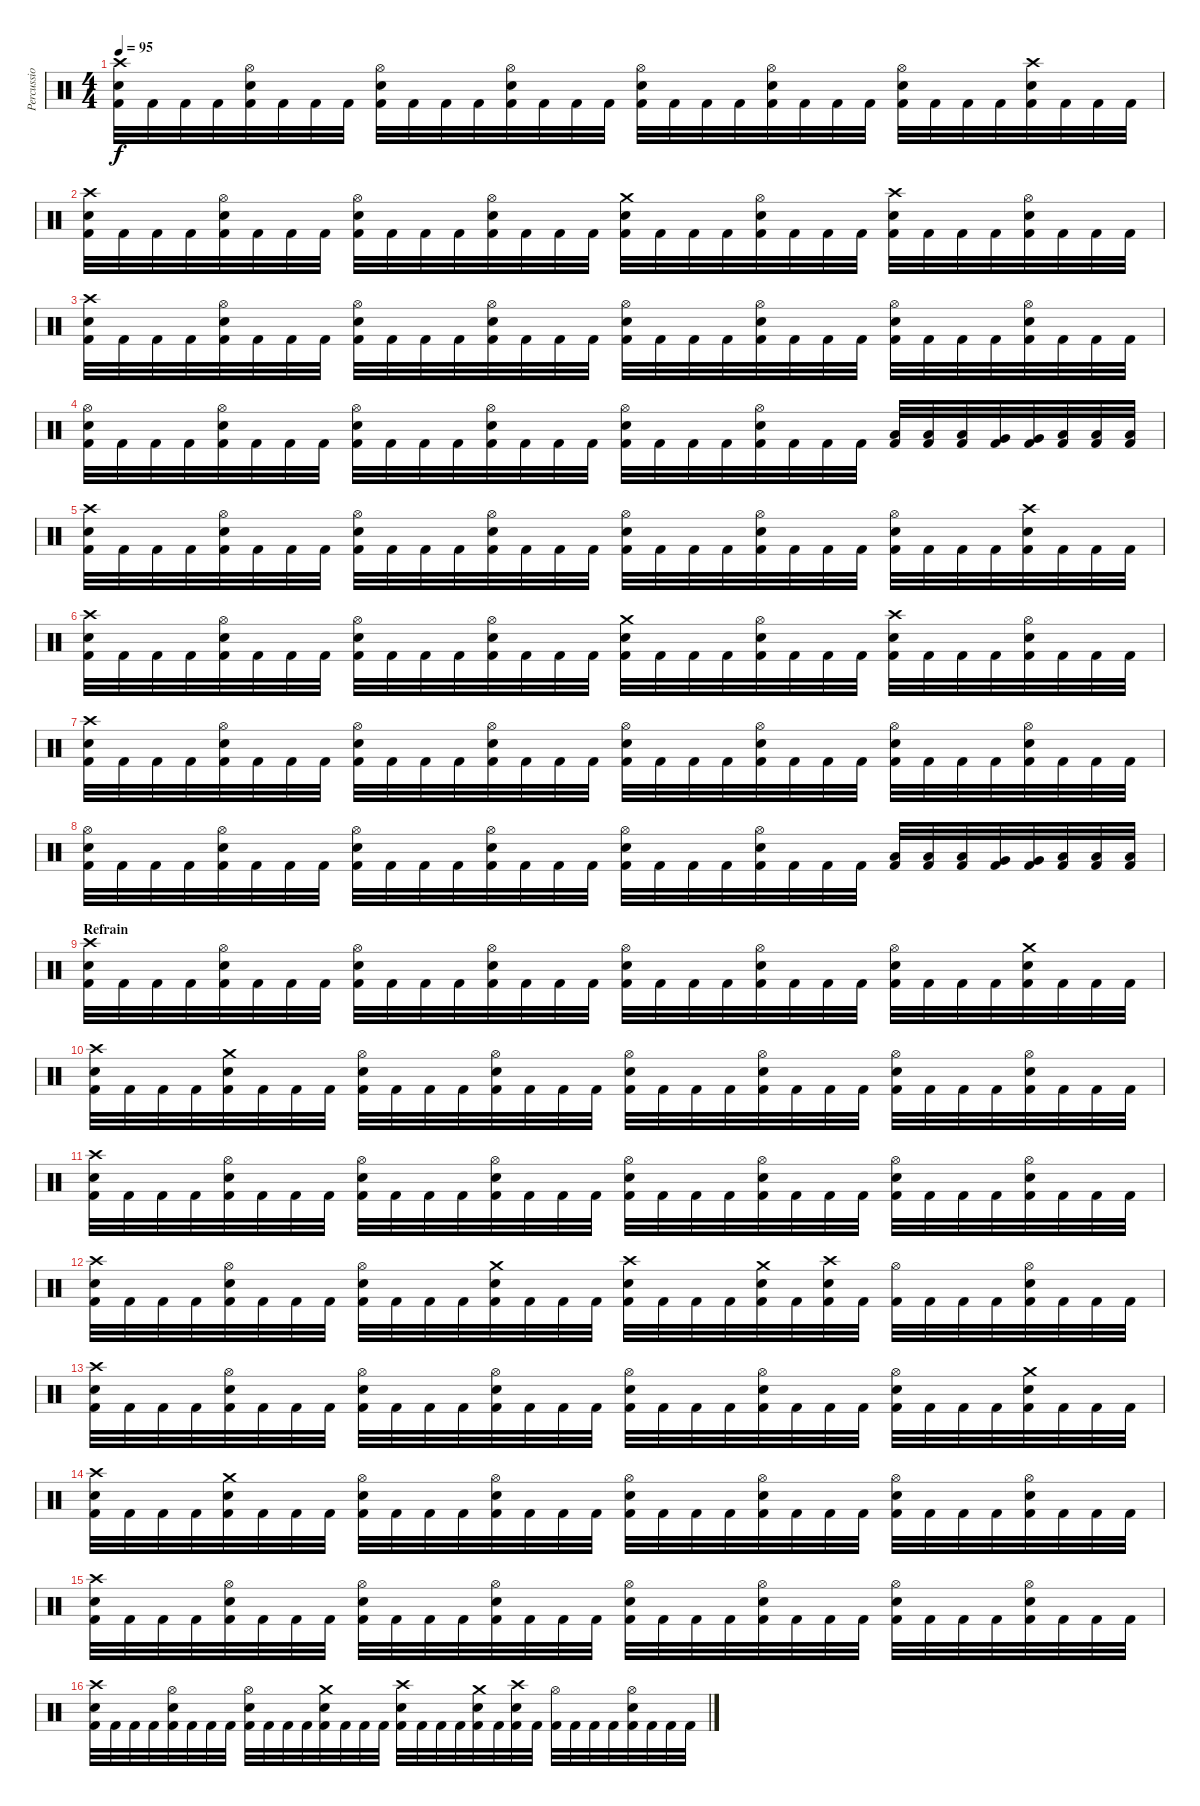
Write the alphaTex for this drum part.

\track (" Percussions" " Percussio") {instrument percussion}
\staff {score}
\articulation defaults
\ts (4 4)
\tempo 95
\clef neutral
\ks c
("Crash high (hit)" "Electric Snare (hit)" "Kick (hit) 2").32{dy f} "Kick (hit) 2".32 "Kick (hit) 2".32 "Kick (hit) 2".32 ("Hi-Hat (open)" "Electric Snare (hit)" "Kick (hit) 2").32 "Kick (hit) 2".32 "Kick (hit) 2".32 "Kick (hit) 2".32 ("Hi-Hat (open)" "Electric Snare (hit)" "Kick (hit) 2").32 "Kick (hit) 2".32 "Kick (hit) 2".32 "Kick (hit) 2".32 ("Hi-Hat (open)" "Electric Snare (hit)" "Kick (hit) 2").32 "Kick (hit) 2".32 "Kick (hit) 2".32 "Kick (hit) 2".32 ("Hi-Hat (open)" "Electric Snare (hit)" "Kick (hit) 2").32 "Kick (hit) 2".32 "Kick (hit) 2".32 "Kick (hit) 2".32 ("Hi-Hat (open)" "Electric Snare (hit)" "Kick (hit) 2").32 "Kick (hit) 2".32 "Kick (hit) 2".32 "Kick (hit) 2".32 ("Hi-Hat (open)" "Electric Snare (hit)" "Kick (hit) 2").32 "Kick (hit) 2".32 "Kick (hit) 2".32 "Kick (hit) 2".32 ("Crash high (hit)" "Electric Snare (hit)" "Kick (hit) 2").32 "Kick (hit) 2".32 "Kick (hit) 2".32 "Kick (hit) 2".32 |
("Crash high (hit)" "Electric Snare (hit)" "Kick (hit) 2").32 "Kick (hit) 2".32 "Kick (hit) 2".32 "Kick (hit) 2".32 ("Hi-Hat (open)" "Electric Snare (hit)" "Kick (hit) 2").32 "Kick (hit) 2".32 "Kick (hit) 2".32 "Kick (hit) 2".32 ("Hi-Hat (open)" "Electric Snare (hit)" "Kick (hit) 2").32 "Kick (hit) 2".32 "Kick (hit) 2".32 "Kick (hit) 2".32 ("Hi-Hat (open)" "Electric Snare (hit)" "Kick (hit) 2").32 "Kick (hit) 2".32 "Kick (hit) 2".32 "Kick (hit) 2".32 ("Crash medium (hit)" "Electric Snare (hit)" "Kick (hit) 2").32 "Kick (hit) 2".32 "Kick (hit) 2".32 "Kick (hit) 2".32 ("Hi-Hat (open)" "Electric Snare (hit)" "Kick (hit) 2").32 "Kick (hit) 2".32 "Kick (hit) 2".32 "Kick (hit) 2".32 ("Crash high (hit)" "Electric Snare (hit)" "Kick (hit) 2").32 "Kick (hit) 2".32 "Kick (hit) 2".32 "Kick (hit) 2".32 ("Hi-Hat (open)" "Electric Snare (hit)" "Kick (hit) 2").32 "Kick (hit) 2".32 "Kick (hit) 2".32 "Kick (hit) 2".32 |
("Crash high (hit)" "Electric Snare (hit)" "Kick (hit) 2").32 "Kick (hit) 2".32 "Kick (hit) 2".32 "Kick (hit) 2".32 ("Hi-Hat (open)" "Electric Snare (hit)" "Kick (hit) 2").32 "Kick (hit) 2".32 "Kick (hit) 2".32 "Kick (hit) 2".32 ("Hi-Hat (open)" "Electric Snare (hit)" "Kick (hit) 2").32 "Kick (hit) 2".32 "Kick (hit) 2".32 "Kick (hit) 2".32 ("Hi-Hat (open)" "Electric Snare (hit)" "Kick (hit) 2").32 "Kick (hit) 2".32 "Kick (hit) 2".32 "Kick (hit) 2".32 ("Hi-Hat (open)" "Electric Snare (hit)" "Kick (hit) 2").32 "Kick (hit) 2".32 "Kick (hit) 2".32 "Kick (hit) 2".32 ("Hi-Hat (open)" "Electric Snare (hit)" "Kick (hit) 2").32 "Kick (hit) 2".32 "Kick (hit) 2".32 "Kick (hit) 2".32 ("Hi-Hat (open)" "Electric Snare (hit)" "Kick (hit) 2").32 "Kick (hit) 2".32 "Kick (hit) 2".32 "Kick (hit) 2".32 ("Hi-Hat (open)" "Electric Snare (hit)" "Kick (hit) 2").32 "Kick (hit) 2".32 "Kick (hit) 2".32 "Kick (hit) 2".32 |
("Hi-Hat (open)" "Electric Snare (hit)" "Kick (hit) 2").32 "Kick (hit) 2".32 "Kick (hit) 2".32 "Kick (hit) 2".32 ("Hi-Hat (open)" "Electric Snare (hit)" "Kick (hit) 2").32 "Kick (hit) 2".32 "Kick (hit) 2".32 "Kick (hit) 2".32 ("Hi-Hat (open)" "Electric Snare (hit)" "Kick (hit) 2").32 "Kick (hit) 2".32 "Kick (hit) 2".32 "Kick (hit) 2".32 ("Hi-Hat (open)" "Electric Snare (hit)" "Kick (hit) 2").32 "Kick (hit) 2".32 "Kick (hit) 2".32 "Kick (hit) 2".32 ("Hi-Hat (open)" "Electric Snare (hit)" "Kick (hit) 2").32 "Kick (hit) 2".32 "Kick (hit) 2".32 "Kick (hit) 2".32 ("Hi-Hat (open)" "Electric Snare (hit)" "Kick (hit) 2").32 "Kick (hit) 2".32 "Kick (hit) 2".32 "Kick (hit) 2".32 ("Low Tom (hit)" "Kick (hit) 2").32 ("Low Tom (hit)" "Kick (hit) 2").32 ("Low Tom (hit)" "Kick (hit) 2").32 ("Very Low Tom (hit)" "Kick (hit) 2").32 ("Very Low Tom (hit)" "Kick (hit) 2").32 ("Low Floor Tom (hit)" "Kick (hit) 2").32 ("Low Floor Tom (hit)" "Kick (hit) 2").32 ("Low Floor Tom (hit)" "Kick (hit) 2").32 |
("Crash high (hit)" "Electric Snare (hit)" "Kick (hit) 2").32 "Kick (hit) 2".32 "Kick (hit) 2".32 "Kick (hit) 2".32 ("Hi-Hat (open)" "Electric Snare (hit)" "Kick (hit) 2").32 "Kick (hit) 2".32 "Kick (hit) 2".32 "Kick (hit) 2".32 ("Hi-Hat (open)" "Electric Snare (hit)" "Kick (hit) 2").32 "Kick (hit) 2".32 "Kick (hit) 2".32 "Kick (hit) 2".32 ("Hi-Hat (open)" "Electric Snare (hit)" "Kick (hit) 2").32 "Kick (hit) 2".32 "Kick (hit) 2".32 "Kick (hit) 2".32 ("Hi-Hat (open)" "Electric Snare (hit)" "Kick (hit) 2").32 "Kick (hit) 2".32 "Kick (hit) 2".32 "Kick (hit) 2".32 ("Hi-Hat (open)" "Electric Snare (hit)" "Kick (hit) 2").32 "Kick (hit) 2".32 "Kick (hit) 2".32 "Kick (hit) 2".32 ("Hi-Hat (open)" "Electric Snare (hit)" "Kick (hit) 2").32 "Kick (hit) 2".32 "Kick (hit) 2".32 "Kick (hit) 2".32 ("Crash high (hit)" "Electric Snare (hit)" "Kick (hit) 2").32 "Kick (hit) 2".32 "Kick (hit) 2".32 "Kick (hit) 2".32 |
("Crash high (hit)" "Electric Snare (hit)" "Kick (hit) 2").32 "Kick (hit) 2".32 "Kick (hit) 2".32 "Kick (hit) 2".32 ("Hi-Hat (open)" "Electric Snare (hit)" "Kick (hit) 2").32 "Kick (hit) 2".32 "Kick (hit) 2".32 "Kick (hit) 2".32 ("Hi-Hat (open)" "Electric Snare (hit)" "Kick (hit) 2").32 "Kick (hit) 2".32 "Kick (hit) 2".32 "Kick (hit) 2".32 ("Hi-Hat (open)" "Electric Snare (hit)" "Kick (hit) 2").32 "Kick (hit) 2".32 "Kick (hit) 2".32 "Kick (hit) 2".32 ("Crash medium (hit)" "Electric Snare (hit)" "Kick (hit) 2").32 "Kick (hit) 2".32 "Kick (hit) 2".32 "Kick (hit) 2".32 ("Hi-Hat (open)" "Electric Snare (hit)" "Kick (hit) 2").32 "Kick (hit) 2".32 "Kick (hit) 2".32 "Kick (hit) 2".32 ("Crash high (hit)" "Electric Snare (hit)" "Kick (hit) 2").32 "Kick (hit) 2".32 "Kick (hit) 2".32 "Kick (hit) 2".32 ("Hi-Hat (open)" "Electric Snare (hit)" "Kick (hit) 2").32 "Kick (hit) 2".32 "Kick (hit) 2".32 "Kick (hit) 2".32 |
("Crash high (hit)" "Electric Snare (hit)" "Kick (hit) 2").32 "Kick (hit) 2".32 "Kick (hit) 2".32 "Kick (hit) 2".32 ("Hi-Hat (open)" "Electric Snare (hit)" "Kick (hit) 2").32 "Kick (hit) 2".32 "Kick (hit) 2".32 "Kick (hit) 2".32 ("Hi-Hat (open)" "Electric Snare (hit)" "Kick (hit) 2").32 "Kick (hit) 2".32 "Kick (hit) 2".32 "Kick (hit) 2".32 ("Hi-Hat (open)" "Electric Snare (hit)" "Kick (hit) 2").32 "Kick (hit) 2".32 "Kick (hit) 2".32 "Kick (hit) 2".32 ("Hi-Hat (open)" "Electric Snare (hit)" "Kick (hit) 2").32 "Kick (hit) 2".32 "Kick (hit) 2".32 "Kick (hit) 2".32 ("Hi-Hat (open)" "Electric Snare (hit)" "Kick (hit) 2").32 "Kick (hit) 2".32 "Kick (hit) 2".32 "Kick (hit) 2".32 ("Hi-Hat (open)" "Electric Snare (hit)" "Kick (hit) 2").32 "Kick (hit) 2".32 "Kick (hit) 2".32 "Kick (hit) 2".32 ("Hi-Hat (open)" "Electric Snare (hit)" "Kick (hit) 2").32 "Kick (hit) 2".32 "Kick (hit) 2".32 "Kick (hit) 2".32 |
("Hi-Hat (open)" "Electric Snare (hit)" "Kick (hit) 2").32 "Kick (hit) 2".32 "Kick (hit) 2".32 "Kick (hit) 2".32 ("Hi-Hat (open)" "Electric Snare (hit)" "Kick (hit) 2").32 "Kick (hit) 2".32 "Kick (hit) 2".32 "Kick (hit) 2".32 ("Hi-Hat (open)" "Electric Snare (hit)" "Kick (hit) 2").32 "Kick (hit) 2".32 "Kick (hit) 2".32 "Kick (hit) 2".32 ("Hi-Hat (open)" "Electric Snare (hit)" "Kick (hit) 2").32 "Kick (hit) 2".32 "Kick (hit) 2".32 "Kick (hit) 2".32 ("Hi-Hat (open)" "Electric Snare (hit)" "Kick (hit) 2").32 "Kick (hit) 2".32 "Kick (hit) 2".32 "Kick (hit) 2".32 ("Hi-Hat (open)" "Electric Snare (hit)" "Kick (hit) 2").32 "Kick (hit) 2".32 "Kick (hit) 2".32 "Kick (hit) 2".32 ("Low Tom (hit)" "Kick (hit) 2").32 ("Low Tom (hit)" "Kick (hit) 2").32 ("Low Tom (hit)" "Kick (hit) 2").32 ("Very Low Tom (hit)" "Kick (hit) 2").32 ("Very Low Tom (hit)" "Kick (hit) 2").32 ("Low Floor Tom (hit)" "Kick (hit) 2").32 ("Low Floor Tom (hit)" "Kick (hit) 2").32 ("Low Floor Tom (hit)" "Kick (hit) 2").32 |
\section ("" "Refrain")
("Crash high (hit)" "Electric Snare (hit)" "Kick (hit) 2").32 "Kick (hit) 2".32 "Kick (hit) 2".32 "Kick (hit) 2".32 ("Hi-Hat (open)" "Electric Snare (hit)" "Kick (hit) 2").32 "Kick (hit) 2".32 "Kick (hit) 2".32 "Kick (hit) 2".32 ("Hi-Hat (open)" "Electric Snare (hit)" "Kick (hit) 2").32 "Kick (hit) 2".32 "Kick (hit) 2".32 "Kick (hit) 2".32 ("Hi-Hat (open)" "Electric Snare (hit)" "Kick (hit) 2").32 "Kick (hit) 2".32 "Kick (hit) 2".32 "Kick (hit) 2".32 ("Hi-Hat (open)" "Electric Snare (hit)" "Kick (hit) 2").32 "Kick (hit) 2".32 "Kick (hit) 2".32 "Kick (hit) 2".32 ("Hi-Hat (open)" "Electric Snare (hit)" "Kick (hit) 2").32 "Kick (hit) 2".32 "Kick (hit) 2".32 "Kick (hit) 2".32 ("Hi-Hat (open)" "Electric Snare (hit)" "Kick (hit) 2").32 "Kick (hit) 2".32 "Kick (hit) 2".32 "Kick (hit) 2".32 ("Crash medium (hit)" "Electric Snare (hit)" "Kick (hit) 2").32 "Kick (hit) 2".32 "Kick (hit) 2".32 "Kick (hit) 2".32 |
("Crash high (hit)" "Electric Snare (hit)" "Kick (hit) 2").32 "Kick (hit) 2".32 "Kick (hit) 2".32 "Kick (hit) 2".32 ("Crash medium (hit)" "Electric Snare (hit)" "Kick (hit) 2").32 "Kick (hit) 2".32 "Kick (hit) 2".32 "Kick (hit) 2".32 ("Hi-Hat (open)" "Electric Snare (hit)" "Kick (hit) 2").32 "Kick (hit) 2".32 "Kick (hit) 2".32 "Kick (hit) 2".32 ("Hi-Hat (open)" "Electric Snare (hit)" "Kick (hit) 2").32 "Kick (hit) 2".32 "Kick (hit) 2".32 "Kick (hit) 2".32 ("Hi-Hat (open)" "Electric Snare (hit)" "Kick (hit) 2").32 "Kick (hit) 2".32 "Kick (hit) 2".32 "Kick (hit) 2".32 ("Hi-Hat (open)" "Electric Snare (hit)" "Kick (hit) 2").32 "Kick (hit) 2".32 "Kick (hit) 2".32 "Kick (hit) 2".32 ("Hi-Hat (open)" "Electric Snare (hit)" "Kick (hit) 2").32 "Kick (hit) 2".32 "Kick (hit) 2".32 "Kick (hit) 2".32 ("Hi-Hat (open)" "Electric Snare (hit)" "Kick (hit) 2").32 "Kick (hit) 2".32 "Kick (hit) 2".32 "Kick (hit) 2".32 |
("Crash high (hit)" "Electric Snare (hit)" "Kick (hit) 2").32 "Kick (hit) 2".32 "Kick (hit) 2".32 "Kick (hit) 2".32 ("Hi-Hat (open)" "Electric Snare (hit)" "Kick (hit) 2").32 "Kick (hit) 2".32 "Kick (hit) 2".32 "Kick (hit) 2".32 ("Hi-Hat (open)" "Electric Snare (hit)" "Kick (hit) 2").32 "Kick (hit) 2".32 "Kick (hit) 2".32 "Kick (hit) 2".32 ("Hi-Hat (open)" "Electric Snare (hit)" "Kick (hit) 2").32 "Kick (hit) 2".32 "Kick (hit) 2".32 "Kick (hit) 2".32 ("Hi-Hat (open)" "Electric Snare (hit)" "Kick (hit) 2").32 "Kick (hit) 2".32 "Kick (hit) 2".32 "Kick (hit) 2".32 ("Hi-Hat (open)" "Electric Snare (hit)" "Kick (hit) 2").32 "Kick (hit) 2".32 "Kick (hit) 2".32 "Kick (hit) 2".32 ("Hi-Hat (open)" "Electric Snare (hit)" "Kick (hit) 2").32 "Kick (hit) 2".32 "Kick (hit) 2".32 "Kick (hit) 2".32 ("Hi-Hat (open)" "Electric Snare (hit)" "Kick (hit) 2").32 "Kick (hit) 2".32 "Kick (hit) 2".32 "Kick (hit) 2".32 |
("Crash high (hit)" "Electric Snare (hit)" "Kick (hit) 2").32 "Kick (hit) 2".32 "Kick (hit) 2".32 "Kick (hit) 2".32 ("Hi-Hat (open)" "Electric Snare (hit)" "Kick (hit) 2").32 "Kick (hit) 2".32 "Kick (hit) 2".32 "Kick (hit) 2".32 ("Hi-Hat (open)" "Electric Snare (hit)" "Kick (hit) 2").32 "Kick (hit) 2".32 "Kick (hit) 2".32 "Kick (hit) 2".32 ("Crash medium (hit)" "Electric Snare (hit)" "Kick (hit) 2").32 "Kick (hit) 2".32 "Kick (hit) 2".32 "Kick (hit) 2".32 ("Crash high (hit)" "Electric Snare (hit)" "Kick (hit) 2").32 "Kick (hit) 2".32 "Kick (hit) 2".32 "Kick (hit) 2".32 ("Crash medium (hit)" "Electric Snare (hit)" "Kick (hit) 2").32 "Kick (hit) 2".32 ("Crash high (hit)" "Electric Snare (hit)" "Kick (hit) 2").32 "Kick (hit) 2".32 ("Hi-Hat (open)" "Kick (hit) 2").32 "Kick (hit) 2".32 "Kick (hit) 2".32 "Kick (hit) 2".32 ("Hi-Hat (open)" "Electric Snare (hit)" "Kick (hit) 2").32 "Kick (hit) 2".32 "Kick (hit) 2".32 "Kick (hit) 2".32 |
("Crash high (hit)" "Electric Snare (hit)" "Kick (hit) 2").32 "Kick (hit) 2".32 "Kick (hit) 2".32 "Kick (hit) 2".32 ("Hi-Hat (open)" "Electric Snare (hit)" "Kick (hit) 2").32 "Kick (hit) 2".32 "Kick (hit) 2".32 "Kick (hit) 2".32 ("Hi-Hat (open)" "Electric Snare (hit)" "Kick (hit) 2").32 "Kick (hit) 2".32 "Kick (hit) 2".32 "Kick (hit) 2".32 ("Hi-Hat (open)" "Electric Snare (hit)" "Kick (hit) 2").32 "Kick (hit) 2".32 "Kick (hit) 2".32 "Kick (hit) 2".32 ("Hi-Hat (open)" "Electric Snare (hit)" "Kick (hit) 2").32 "Kick (hit) 2".32 "Kick (hit) 2".32 "Kick (hit) 2".32 ("Hi-Hat (open)" "Electric Snare (hit)" "Kick (hit) 2").32 "Kick (hit) 2".32 "Kick (hit) 2".32 "Kick (hit) 2".32 ("Hi-Hat (open)" "Electric Snare (hit)" "Kick (hit) 2").32 "Kick (hit) 2".32 "Kick (hit) 2".32 "Kick (hit) 2".32 ("Crash medium (hit)" "Electric Snare (hit)" "Kick (hit) 2").32 "Kick (hit) 2".32 "Kick (hit) 2".32 "Kick (hit) 2".32 |
("Crash high (hit)" "Electric Snare (hit)" "Kick (hit) 2").32 "Kick (hit) 2".32 "Kick (hit) 2".32 "Kick (hit) 2".32 ("Crash medium (hit)" "Electric Snare (hit)" "Kick (hit) 2").32 "Kick (hit) 2".32 "Kick (hit) 2".32 "Kick (hit) 2".32 ("Hi-Hat (open)" "Electric Snare (hit)" "Kick (hit) 2").32 "Kick (hit) 2".32 "Kick (hit) 2".32 "Kick (hit) 2".32 ("Hi-Hat (open)" "Electric Snare (hit)" "Kick (hit) 2").32 "Kick (hit) 2".32 "Kick (hit) 2".32 "Kick (hit) 2".32 ("Hi-Hat (open)" "Electric Snare (hit)" "Kick (hit) 2").32 "Kick (hit) 2".32 "Kick (hit) 2".32 "Kick (hit) 2".32 ("Hi-Hat (open)" "Electric Snare (hit)" "Kick (hit) 2").32 "Kick (hit) 2".32 "Kick (hit) 2".32 "Kick (hit) 2".32 ("Hi-Hat (open)" "Electric Snare (hit)" "Kick (hit) 2").32 "Kick (hit) 2".32 "Kick (hit) 2".32 "Kick (hit) 2".32 ("Hi-Hat (open)" "Electric Snare (hit)" "Kick (hit) 2").32 "Kick (hit) 2".32 "Kick (hit) 2".32 "Kick (hit) 2".32 |
("Crash high (hit)" "Electric Snare (hit)" "Kick (hit) 2").32 "Kick (hit) 2".32 "Kick (hit) 2".32 "Kick (hit) 2".32 ("Hi-Hat (open)" "Electric Snare (hit)" "Kick (hit) 2").32 "Kick (hit) 2".32 "Kick (hit) 2".32 "Kick (hit) 2".32 ("Hi-Hat (open)" "Electric Snare (hit)" "Kick (hit) 2").32 "Kick (hit) 2".32 "Kick (hit) 2".32 "Kick (hit) 2".32 ("Hi-Hat (open)" "Electric Snare (hit)" "Kick (hit) 2").32 "Kick (hit) 2".32 "Kick (hit) 2".32 "Kick (hit) 2".32 ("Hi-Hat (open)" "Electric Snare (hit)" "Kick (hit) 2").32 "Kick (hit) 2".32 "Kick (hit) 2".32 "Kick (hit) 2".32 ("Hi-Hat (open)" "Electric Snare (hit)" "Kick (hit) 2").32 "Kick (hit) 2".32 "Kick (hit) 2".32 "Kick (hit) 2".32 ("Hi-Hat (open)" "Electric Snare (hit)" "Kick (hit) 2").32 "Kick (hit) 2".32 "Kick (hit) 2".32 "Kick (hit) 2".32 ("Hi-Hat (open)" "Electric Snare (hit)" "Kick (hit) 2").32 "Kick (hit) 2".32 "Kick (hit) 2".32 "Kick (hit) 2".32 |
("Crash high (hit)" "Electric Snare (hit)" "Kick (hit) 2").32 "Kick (hit) 2".32 "Kick (hit) 2".32 "Kick (hit) 2".32 ("Hi-Hat (open)" "Electric Snare (hit)" "Kick (hit) 2").32 "Kick (hit) 2".32 "Kick (hit) 2".32 "Kick (hit) 2".32 ("Hi-Hat (open)" "Electric Snare (hit)" "Kick (hit) 2").32 "Kick (hit) 2".32 "Kick (hit) 2".32 "Kick (hit) 2".32 ("Crash medium (hit)" "Electric Snare (hit)" "Kick (hit) 2").32 "Kick (hit) 2".32 "Kick (hit) 2".32 "Kick (hit) 2".32 ("Crash high (hit)" "Electric Snare (hit)" "Kick (hit) 2").32 "Kick (hit) 2".32 "Kick (hit) 2".32 "Kick (hit) 2".32 ("Crash medium (hit)" "Electric Snare (hit)" "Kick (hit) 2").32 "Kick (hit) 2".32 ("Crash high (hit)" "Electric Snare (hit)" "Kick (hit) 2").32 "Kick (hit) 2".32 ("Hi-Hat (open)" "Kick (hit) 2").32 "Kick (hit) 2".32 "Kick (hit) 2".32 "Kick (hit) 2".32 ("Hi-Hat (open)" "Electric Snare (hit)" "Kick (hit) 2").32 "Kick (hit) 2".32 "Kick (hit) 2".32 "Kick (hit) 2".32
